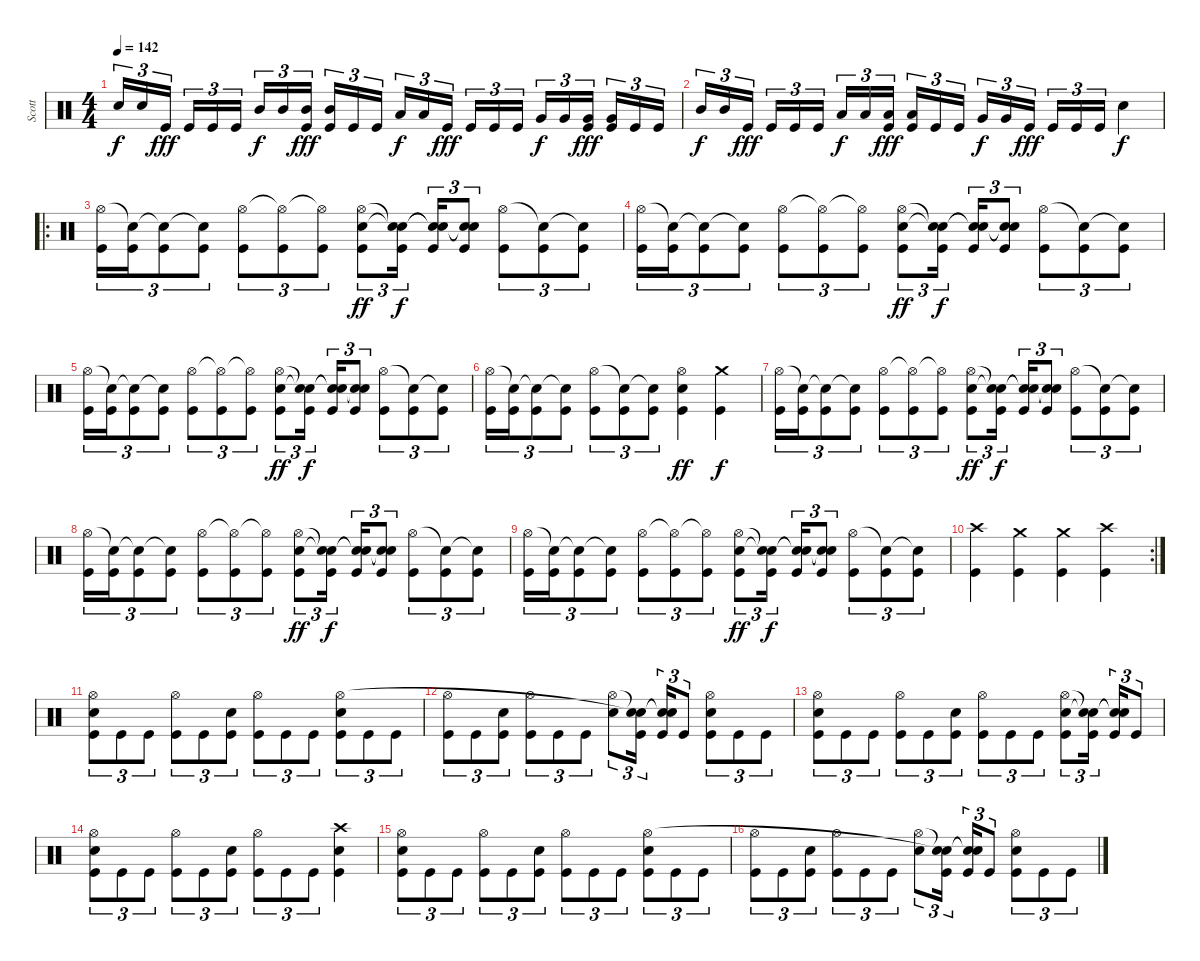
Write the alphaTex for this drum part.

\track ("Scott" "Scott") {instrument percussion}
\staff {score}
\articulation defaults
\ts (4 4)
\tempo 142
\clef neutral
\ks c "Snare (hit) 2".16{tu (3 2) dy f} "Snare (hit) 2".16{tu (3 2)} "Kick (hit)".16{tu (3 2) dy fff} "Kick (hit)".16{tu (3 2)} "Kick (hit)".16{tu (3 2)} "Kick (hit)".16{tu (3 2)} "Mid Tom (hit)".16{tu (3 2) dy f} "Mid Tom (hit)".16{tu (3 2)}
("Kick (hit)" "Mid Tom (hit)").16{tu (3 2) dy fff} ("Kick (hit)" "Mid Tom (hit)").16{tu (3 2)} "Kick (hit)".16{tu (3 2)} "Kick (hit)".16{tu (3 2)} "Low Tom (hit)".16{tu (3 2) dy f} "Low Tom (hit)".16{tu (3 2)} "Kick (hit)".16{tu (3 2) dy fff} "Kick (hit)".16{tu (3 2)} "Kick (hit)".16{tu (3 2)} "Kick (hit)".16{tu (3 2)} "Very Low Tom (hit)".16{tu (3 2) dy f} "Very Low Tom (hit)".16{tu (3 2)} ("Kick (hit)" "Very Low Tom (hit)").16{tu (3 2) dy fff} ("Kick (hit)" "Very Low Tom (hit)").16{tu (3 2)} "Kick (hit)".16{tu (3 2)} "Kick (hit)".16{tu (3 2)} |
"Mid Tom (hit)".16{tu (3 2) dy f} "Mid Tom (hit)".16{tu (3 2)} "Kick (hit)".16{tu (3 2) dy fff} "Kick (hit)".16{tu (3 2)} "Kick (hit)".16{tu (3 2)} "Kick (hit)".16{tu (3 2)} "Low Tom (hit)".16{tu (3 2) dy f} "Low Tom (hit)".16{tu (3 2)} ("Kick (hit)" "Low Tom (hit)").16{tu (3 2) dy fff} ("Kick (hit)" "Low Tom (hit)").16{tu (3 2)} "Kick (hit)".16{tu (3 2)} "Kick (hit)".16{tu (3 2)} "Very Low Tom (hit)".16{tu (3 2) dy f} "Very Low Tom (hit)".16{tu (3 2)} "Kick (hit)".16{tu (3 2) dy fff} "Kick (hit)".16{tu (3 2)} "Kick (hit)".16{tu (3 2)} "Kick (hit)".16{tu (3 2)} "Snare (hit) 2".4{dy f} |
\ro
("Kick (hit)" "Hi-Hat (open)").16{tu (3 2)} ("Kick (hit)" "Snare (hit)"{t}).16{tu (3 2)} ("Kick (hit)" "Snare (hit)"{t}).8{tu (3 2)} ("Kick (hit)" "Snare (hit)"{t}).8{tu (3 2)} ("Kick (hit)" "Hi-Hat (open)").8{tu (3 2)} ("Kick (hit)" "Hi-Hat (open)"{t}).8{tu (3 2)} ("Kick (hit)" "Hi-Hat (open)"{t}).8{tu (3 2)} ("Kick (hit)" "Snare (hit) 2" "Hi-Hat (open)").8{tu (3 2) dy ff} ("Kick (hit)" "Snare (hit)"{t} "Snare (hit)"{t}).16{tu (3 2) dy f} ("Kick (hit)" "Snare (hit)"{t} "Snare (hit)"{t}).16{tu (3 2)} ("Kick (hit)" "Snare (hit)"{t} "Snare (hit)"{t}).8{tu (3 2)} ("Kick (hit)" "Hi-Hat (open)").8{tu (3 2)} ("Kick (hit)" "Snare (hit)"{t}).8{tu (3 2)} ("Kick (hit)" "Snare (hit)"{t}).8{tu (3 2)} |
("Kick (hit)" "Hi-Hat (open)").16{tu (3 2)} ("Kick (hit)" "Snare (hit)"{t}).16{tu (3 2)} ("Kick (hit)" "Snare (hit)"{t}).8{tu (3 2)} ("Kick (hit)" "Snare (hit)"{t}).8{tu (3 2)} ("Kick (hit)" "Hi-Hat (open)").8{tu (3 2)} ("Kick (hit)" "Hi-Hat (open)"{t}).8{tu (3 2)} ("Kick (hit)" "Hi-Hat (open)"{t}).8{tu (3 2)} ("Kick (hit)" "Snare (hit) 2" "Hi-Hat (open)").8{tu (3 2) dy ff} ("Kick (hit)" "Snare (hit)"{t} "Snare (hit)"{t}).16{tu (3 2) dy f} ("Kick (hit)" "Snare (hit)"{t} "Snare (hit)"{t}).16{tu (3 2)} ("Kick (hit)" "Snare (hit)"{t} "Snare (hit)"{t}).8{tu (3 2)} ("Kick (hit)" "Hi-Hat (open)").8{tu (3 2)} ("Kick (hit)" "Snare (hit)"{t}).8{tu (3 2)} ("Kick (hit)" "Snare (hit)"{t}).8{tu (3 2)} |
("Kick (hit)" "Hi-Hat (open)").16{tu (3 2)} ("Kick (hit)" "Snare (hit)"{t}).16{tu (3 2)} ("Kick (hit)" "Snare (hit)"{t}).8{tu (3 2)} ("Kick (hit)" "Snare (hit)"{t}).8{tu (3 2)} ("Kick (hit)" "Hi-Hat (open)").8{tu (3 2)} ("Kick (hit)" "Hi-Hat (open)"{t}).8{tu (3 2)} ("Kick (hit)" "Hi-Hat (open)"{t}).8{tu (3 2)} ("Kick (hit)" "Snare (hit) 2" "Hi-Hat (open)").8{tu (3 2) dy ff} ("Kick (hit)" "Snare (hit)"{t} "Snare (hit)"{t}).16{tu (3 2) dy f} ("Kick (hit)" "Snare (hit)"{t} "Snare (hit)"{t}).16{tu (3 2)} ("Kick (hit)" "Snare (hit)"{t} "Snare (hit)"{t}).8{tu (3 2)} ("Kick (hit)" "Hi-Hat (open)").8{tu (3 2)} ("Kick (hit)" "Snare (hit)"{t}).8{tu (3 2)} ("Kick (hit)" "Snare (hit)"{t}).8{tu (3 2)} |
("Kick (hit)" "Hi-Hat (open)").16{tu (3 2)} ("Kick (hit)" "Snare (hit)"{t}).16{tu (3 2)} ("Kick (hit)" "Snare (hit)"{t}).8{tu (3 2)} ("Kick (hit)" "Snare (hit)"{t}).8{tu (3 2)} ("Kick (hit)" "Hi-Hat (open)").8{tu (3 2)} ("Kick (hit)" "Snare (hit)"{t}).8{tu (3 2)} ("Kick (hit)" "Snare (hit)"{t}).8{tu (3 2)} ("Kick (hit)" "Snare (hit) 2" "Hi-Hat (open)").4{dy ff} ("Kick (hit)" "Crash medium (hit)").4{dy f} |
("Kick (hit)" "Hi-Hat (open)").16{tu (3 2)} ("Kick (hit)" "Snare (hit)"{t}).16{tu (3 2)} ("Kick (hit)" "Snare (hit)"{t}).8{tu (3 2)} ("Kick (hit)" "Snare (hit)"{t}).8{tu (3 2)} ("Kick (hit)" "Hi-Hat (open)").8{tu (3 2)} ("Kick (hit)" "Hi-Hat (open)"{t}).8{tu (3 2)} ("Kick (hit)" "Hi-Hat (open)"{t}).8{tu (3 2)} ("Kick (hit)" "Snare (hit) 2" "Hi-Hat (open)").8{tu (3 2) dy ff} ("Kick (hit)" "Snare (hit)"{t} "Snare (hit)"{t}).16{tu (3 2) dy f} ("Kick (hit)" "Snare (hit)"{t} "Snare (hit)"{t}).16{tu (3 2)} ("Kick (hit)" "Snare (hit)"{t} "Snare (hit)"{t}).8{tu (3 2)} ("Kick (hit)" "Hi-Hat (open)").8{tu (3 2)} ("Kick (hit)" "Snare (hit)"{t}).8{tu (3 2)} ("Kick (hit)" "Snare (hit)"{t}).8{tu (3 2)} |
("Kick (hit)" "Hi-Hat (open)").16{tu (3 2)} ("Kick (hit)" "Snare (hit)"{t}).16{tu (3 2)} ("Kick (hit)" "Snare (hit)"{t}).8{tu (3 2)} ("Kick (hit)" "Snare (hit)"{t}).8{tu (3 2)} ("Kick (hit)" "Hi-Hat (open)").8{tu (3 2)} ("Kick (hit)" "Hi-Hat (open)"{t}).8{tu (3 2)} ("Kick (hit)" "Hi-Hat (open)"{t}).8{tu (3 2)} ("Kick (hit)" "Snare (hit) 2" "Hi-Hat (open)").8{tu (3 2) dy ff} ("Kick (hit)" "Snare (hit)"{t} "Snare (hit)"{t}).16{tu (3 2) dy f} ("Kick (hit)" "Snare (hit)"{t} "Snare (hit)"{t}).16{tu (3 2)} ("Kick (hit)" "Snare (hit)"{t} "Snare (hit)"{t}).8{tu (3 2)} ("Kick (hit)" "Hi-Hat (open)").8{tu (3 2)} ("Kick (hit)" "Snare (hit)"{t}).8{tu (3 2)} ("Kick (hit)" "Snare (hit)"{t}).8{tu (3 2)} |
("Kick (hit)" "Hi-Hat (open)").16{tu (3 2)} ("Kick (hit)" "Snare (hit)"{t}).16{tu (3 2)} ("Kick (hit)" "Snare (hit)"{t}).8{tu (3 2)} ("Kick (hit)" "Snare (hit)"{t}).8{tu (3 2)} ("Kick (hit)" "Hi-Hat (open)").8{tu (3 2)} ("Kick (hit)" "Hi-Hat (open)"{t}).8{tu (3 2)} ("Kick (hit)" "Hi-Hat (open)"{t}).8{tu (3 2)} ("Kick (hit)" "Snare (hit) 2" "Hi-Hat (open)").8{tu (3 2) dy ff} ("Kick (hit)" "Snare (hit)"{t} "Snare (hit)"{t}).16{tu (3 2) dy f} ("Kick (hit)" "Snare (hit)"{t} "Snare (hit)"{t}).16{tu (3 2)} ("Kick (hit)" "Snare (hit)"{t} "Snare (hit)"{t}).8{tu (3 2)} ("Kick (hit)" "Hi-Hat (open)").8{tu (3 2)} ("Kick (hit)" "Snare (hit)"{t}).8{tu (3 2)} ("Kick (hit)" "Snare (hit)"{t}).8{tu (3 2)} |
\rc 2
("Kick (hit)" "Crash high (hit)").4 ("Kick (hit)" "Crash medium (hit)").4 ("Kick (hit)" "Crash medium (hit)").4 ("Kick (hit)" "Crash high (hit)").4 |
("Kick (hit)" "Snare (hit) 2" "Hi-Hat (open)").8{tu (3 2)} "Kick (hit)".8{tu (3 2)} "Kick (hit)".8{tu (3 2)} ("Kick (hit)" "Hi-Hat (open)").8{tu (3 2)} "Kick (hit)".8{tu (3 2)} ("Kick (hit)" "Snare (hit) 2").8{tu (3 2)} ("Kick (hit)" "Hi-Hat (open)").8{tu (3 2)} "Kick (hit)".8{tu (3 2)} "Kick (hit)".8{tu (3 2)} ("Kick (hit)" "Snare (hit) 2" "Hi-Hat (open)").8{tu (3 2)} "Kick (hit)".8{tu (3 2)} "Kick (hit)".8{tu (3 2)} |
("Kick (hit)" "Hi-Hat (open)").8{tu (3 2)} "Kick (hit)".8{tu (3 2)} ("Kick (hit)" "Snare (hit) 2").8{tu (3 2)} ("Kick (hit)" "Hi-Hat (open)").8{tu (3 2)} "Kick (hit)".8{tu (3 2)} "Kick (hit)".8{tu (3 2)} ("Snare (hit) 2" "Hi-Hat (open)").8{tu (3 2)} ("Kick (hit)" "Snare (hit)"{t} "Snare (hit)"{t}).16{tu (3 2)} ("Kick (hit)" "Snare (hit)"{t} "Snare (hit)"{t}).16{tu (3 2)} "Kick (hit)".8{tu (3 2)} ("Kick (hit)" "Snare (hit) 2" "Hi-Hat (open)").8{tu (3 2)} "Kick (hit)".8{tu (3 2)} "Kick (hit)".8{tu (3 2)} |
("Kick (hit)" "Snare (hit) 2" "Hi-Hat (open)").8{tu (3 2)} "Kick (hit)".8{tu (3 2)} "Kick (hit)".8{tu (3 2)} ("Kick (hit)" "Hi-Hat (open)").8{tu (3 2)} "Kick (hit)".8{tu (3 2)} ("Kick (hit)" "Snare (hit) 2").8{tu (3 2)} ("Kick (hit)" "Hi-Hat (open)").8{tu (3 2)} "Kick (hit)".8{tu (3 2)} "Kick (hit)".8{tu (3 2)} ("Kick (hit)" "Snare (hit) 2" "Hi-Hat (open)").8{tu (3 2)} ("Kick (hit)" "Snare (hit)"{t} "Snare (hit)"{t}).16{tu (3 2)} ("Kick (hit)" "Snare (hit)"{t} "Snare (hit)"{t}).16{tu (3 2)} "Kick (hit)".8{tu (3 2)} |
("Kick (hit)" "Snare (hit) 2" "Hi-Hat (open)").8{tu (3 2)} "Kick (hit)".8{tu (3 2)} "Kick (hit)".8{tu (3 2)} ("Kick (hit)" "Hi-Hat (open)").8{tu (3 2)} "Kick (hit)".8{tu (3 2)} ("Kick (hit)" "Snare (hit) 2").8{tu (3 2)} ("Kick (hit)" "Hi-Hat (open)").8{tu (3 2)} "Kick (hit)".8{tu (3 2)} "Kick (hit)".8{tu (3 2)} ("Kick (hit)" "Snare (hit) 2" "Crash high (hit)").4 |
("Kick (hit)" "Snare (hit) 2" "Hi-Hat (open)").8{tu (3 2)} "Kick (hit)".8{tu (3 2)} "Kick (hit)".8{tu (3 2)} ("Kick (hit)" "Hi-Hat (open)").8{tu (3 2)} "Kick (hit)".8{tu (3 2)} ("Kick (hit)" "Snare (hit) 2").8{tu (3 2)} ("Kick (hit)" "Hi-Hat (open)").8{tu (3 2)} "Kick (hit)".8{tu (3 2)} "Kick (hit)".8{tu (3 2)} ("Kick (hit)" "Snare (hit) 2" "Hi-Hat (open)").8{tu (3 2)} "Kick (hit)".8{tu (3 2)} "Kick (hit)".8{tu (3 2)} |
("Kick (hit)" "Hi-Hat (open)").8{tu (3 2)} "Kick (hit)".8{tu (3 2)} ("Kick (hit)" "Snare (hit) 2").8{tu (3 2)} ("Kick (hit)" "Hi-Hat (open)").8{tu (3 2)} "Kick (hit)".8{tu (3 2)} "Kick (hit)".8{tu (3 2)} ("Snare (hit) 2" "Hi-Hat (open)").8{tu (3 2)} ("Kick (hit)" "Snare (hit)"{t} "Snare (hit)"{t}).16{tu (3 2)} ("Kick (hit)" "Snare (hit)"{t} "Snare (hit)"{t}).16{tu (3 2)} "Kick (hit)".8{tu (3 2)} ("Kick (hit)" "Snare (hit) 2" "Hi-Hat (open)").8{tu (3 2)} "Kick (hit)".8{tu (3 2)} "Kick (hit)".8{tu (3 2)}
